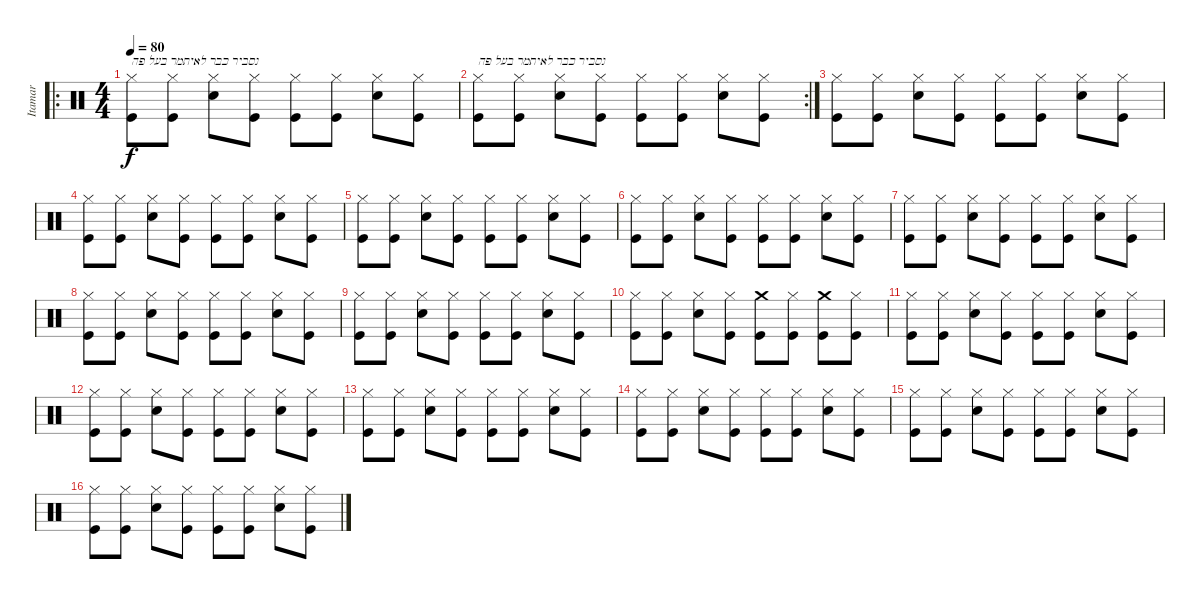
\track ("Itamar" "Itamar") {instrument percussion}
\staff {score}
\articulation defaults
\ro
\ts (4 4)
\tempo 80
\clef neutral
\ks c
("Hi-Hat (closed)" "Kick (hit)").8{txt "נסביר כבר לאיתמר בעל פה" dy f} ("Hi-Hat (closed)" "Kick (hit)").8 ("Hi-Hat (closed)" "Electric Snare (hit)").8 ("Hi-Hat (closed)" "Kick (hit)").8 ("Hi-Hat (closed)" "Kick (hit)").8 ("Hi-Hat (closed)" "Kick (hit)").8 ("Hi-Hat (closed)" "Electric Snare (hit)").8 ("Hi-Hat (closed)" "Kick (hit)").8 |
\rc 2
("Hi-Hat (closed)" "Kick (hit)").8{txt "נסביר כבר לאיתמר בעל פה"} ("Hi-Hat (closed)" "Kick (hit)").8 ("Hi-Hat (closed)" "Electric Snare (hit)").8 ("Hi-Hat (closed)" "Kick (hit)").8 ("Hi-Hat (closed)" "Kick (hit)").8 ("Hi-Hat (closed)" "Kick (hit)").8 ("Hi-Hat (closed)" "Electric Snare (hit)").8 ("Hi-Hat (closed)" "Kick (hit)").8 |
("Hi-Hat (closed)" "Kick (hit)").8 ("Hi-Hat (closed)" "Kick (hit)").8 ("Hi-Hat (closed)" "Electric Snare (hit)").8 ("Hi-Hat (closed)" "Kick (hit)").8 ("Hi-Hat (closed)" "Kick (hit)").8 ("Hi-Hat (closed)" "Kick (hit)").8 ("Hi-Hat (closed)" "Electric Snare (hit)").8 ("Hi-Hat (closed)" "Kick (hit)").8 |
("Hi-Hat (closed)" "Kick (hit)").8 ("Hi-Hat (closed)" "Kick (hit)").8 ("Hi-Hat (closed)" "Electric Snare (hit)").8 ("Hi-Hat (closed)" "Kick (hit)").8 ("Hi-Hat (closed)" "Kick (hit)").8 ("Hi-Hat (closed)" "Kick (hit)").8 ("Hi-Hat (closed)" "Electric Snare (hit)").8 ("Hi-Hat (closed)" "Kick (hit)").8 |
("Hi-Hat (closed)" "Kick (hit)").8 ("Hi-Hat (closed)" "Kick (hit)").8 ("Hi-Hat (closed)" "Electric Snare (hit)").8 ("Hi-Hat (closed)" "Kick (hit)").8 ("Hi-Hat (closed)" "Kick (hit)").8 ("Hi-Hat (closed)" "Kick (hit)").8 ("Hi-Hat (closed)" "Electric Snare (hit)").8 ("Hi-Hat (closed)" "Kick (hit)").8 |
("Hi-Hat (closed)" "Kick (hit)").8 ("Hi-Hat (closed)" "Kick (hit)").8 ("Hi-Hat (closed)" "Electric Snare (hit)").8 ("Hi-Hat (closed)" "Kick (hit)").8 ("Hi-Hat (closed)" "Kick (hit)").8 ("Hi-Hat (closed)" "Kick (hit)").8 ("Hi-Hat (closed)" "Electric Snare (hit)").8 ("Hi-Hat (closed)" "Kick (hit)").8 |
("Hi-Hat (closed)" "Kick (hit)").8 ("Hi-Hat (closed)" "Kick (hit)").8 ("Hi-Hat (closed)" "Electric Snare (hit)").8 ("Hi-Hat (closed)" "Kick (hit)").8 ("Hi-Hat (closed)" "Kick (hit)").8 ("Hi-Hat (closed)" "Kick (hit)").8 ("Hi-Hat (closed)" "Electric Snare (hit)").8 ("Hi-Hat (closed)" "Kick (hit)").8 |
("Hi-Hat (closed)" "Kick (hit)").8 ("Hi-Hat (closed)" "Kick (hit)").8 ("Hi-Hat (closed)" "Electric Snare (hit)").8 ("Hi-Hat (closed)" "Kick (hit)").8 ("Hi-Hat (closed)" "Kick (hit)").8 ("Hi-Hat (closed)" "Kick (hit)").8 ("Hi-Hat (closed)" "Electric Snare (hit)").8 ("Hi-Hat (closed)" "Kick (hit)").8 |
("Hi-Hat (closed)" "Kick (hit)").8 ("Hi-Hat (closed)" "Kick (hit)").8 ("Hi-Hat (closed)" "Electric Snare (hit)").8 ("Hi-Hat (closed)" "Kick (hit)").8 ("Hi-Hat (closed)" "Kick (hit)").8 ("Hi-Hat (closed)" "Kick (hit)").8 ("Hi-Hat (closed)" "Electric Snare (hit)").8 ("Hi-Hat (closed)" "Kick (hit)").8 |
("Hi-Hat (closed)" "Kick (hit)").8 ("Hi-Hat (closed)" "Kick (hit)").8 ("Hi-Hat (closed)" "Electric Snare (hit)").8 ("Hi-Hat (closed)" "Kick (hit)").8 ("Crash medium (hit)" "Kick (hit)").8 ("Hi-Hat (closed)" "Kick (hit)").8 ("Crash medium (hit)" "Kick (hit)").8 ("Hi-Hat (closed)" "Kick (hit)").8 |
("Hi-Hat (closed)" "Kick (hit)").8 ("Hi-Hat (closed)" "Kick (hit)").8 ("Hi-Hat (closed)" "Electric Snare (hit)").8 ("Hi-Hat (closed)" "Kick (hit)").8 ("Hi-Hat (closed)" "Kick (hit)").8 ("Hi-Hat (closed)" "Kick (hit)").8 ("Hi-Hat (closed)" "Electric Snare (hit)").8 ("Hi-Hat (closed)" "Kick (hit)").8 |
("Hi-Hat (closed)" "Kick (hit)").8 ("Hi-Hat (closed)" "Kick (hit)").8 ("Hi-Hat (closed)" "Electric Snare (hit)").8 ("Hi-Hat (closed)" "Kick (hit)").8 ("Hi-Hat (closed)" "Kick (hit)").8 ("Hi-Hat (closed)" "Kick (hit)").8 ("Hi-Hat (closed)" "Electric Snare (hit)").8 ("Hi-Hat (closed)" "Kick (hit)").8 |
("Hi-Hat (closed)" "Kick (hit)").8 ("Hi-Hat (closed)" "Kick (hit)").8 ("Hi-Hat (closed)" "Electric Snare (hit)").8 ("Hi-Hat (closed)" "Kick (hit)").8 ("Hi-Hat (closed)" "Kick (hit)").8 ("Hi-Hat (closed)" "Kick (hit)").8 ("Hi-Hat (closed)" "Electric Snare (hit)").8 ("Hi-Hat (closed)" "Kick (hit)").8 |
("Hi-Hat (closed)" "Kick (hit)").8 ("Hi-Hat (closed)" "Kick (hit)").8 ("Hi-Hat (closed)" "Electric Snare (hit)").8 ("Hi-Hat (closed)" "Kick (hit)").8 ("Hi-Hat (closed)" "Kick (hit)").8 ("Hi-Hat (closed)" "Kick (hit)").8 ("Hi-Hat (closed)" "Electric Snare (hit)").8 ("Hi-Hat (closed)" "Kick (hit)").8 |
("Hi-Hat (closed)" "Kick (hit)").8 ("Hi-Hat (closed)" "Kick (hit)").8 ("Hi-Hat (closed)" "Electric Snare (hit)").8 ("Hi-Hat (closed)" "Kick (hit)").8 ("Hi-Hat (closed)" "Kick (hit)").8 ("Hi-Hat (closed)" "Kick (hit)").8 ("Hi-Hat (closed)" "Electric Snare (hit)").8 ("Hi-Hat (closed)" "Kick (hit)").8 |
("Hi-Hat (closed)" "Kick (hit)").8 ("Hi-Hat (closed)" "Kick (hit)").8 ("Hi-Hat (closed)" "Electric Snare (hit)").8 ("Hi-Hat (closed)" "Kick (hit)").8 ("Hi-Hat (closed)" "Kick (hit)").8 ("Hi-Hat (closed)" "Kick (hit)").8 ("Hi-Hat (closed)" "Electric Snare (hit)").8 ("Hi-Hat (closed)" "Kick (hit)").8
